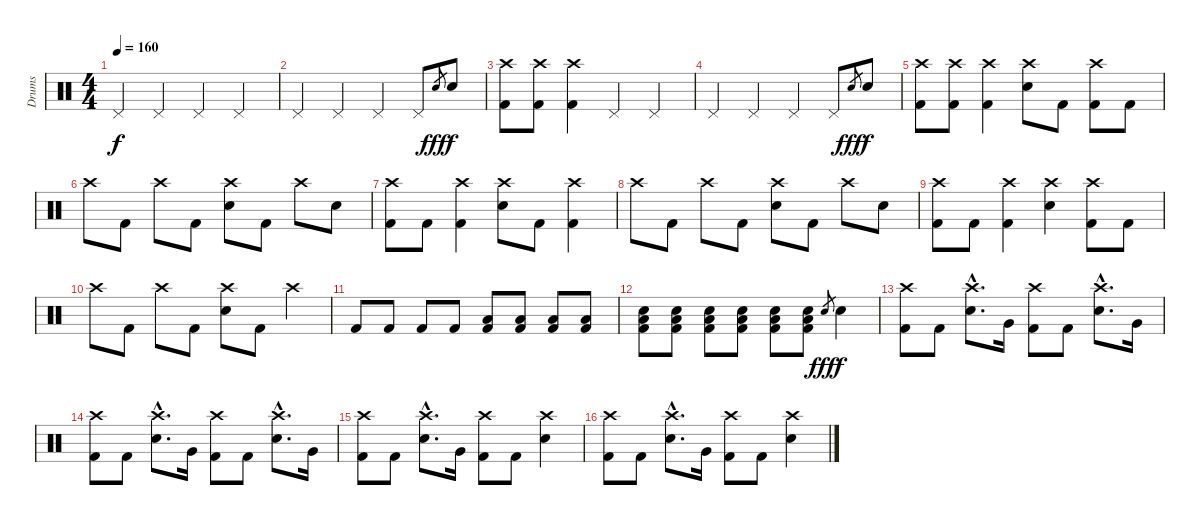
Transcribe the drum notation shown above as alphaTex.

\track ("Drums" "Drums") {instrument percussion}
\staff {score}
\articulation defaults
\ts (4 4)
\tempo 160
\clef neutral
\ks c "Pedal Hi-Hat (hit)".4{dy f} "Pedal Hi-Hat (hit)".4 "Pedal Hi-Hat (hit)".4 "Pedal Hi-Hat (hit)".4
|
"Pedal Hi-Hat (hit)".4 "Pedal Hi-Hat (hit)".4 "Pedal Hi-Hat (hit)".4 "Pedal Hi-Hat (hit)".8 "Electric Snare (hit)".8{gr dy fff} "Electric Snare (hit)".8{dy f} |
("Crash high (hit)" "Kick (hit) 2").8 ("Crash high (hit)" "Kick (hit) 2").8 ("Crash high (hit)" "Kick (hit) 2").4 "Pedal Hi-Hat (hit)".4 "Pedal Hi-Hat (hit)".4 |
"Pedal Hi-Hat (hit)".4 "Pedal Hi-Hat (hit)".4 "Pedal Hi-Hat (hit)".4 "Pedal Hi-Hat (hit)".8 "Electric Snare (hit)".8{gr dy fff} "Electric Snare (hit)".8{dy f} |
("Crash high (hit)" "Kick (hit) 2").8 ("Crash high (hit)" "Kick (hit) 2").8 ("Crash high (hit)" "Kick (hit) 2").4 ("Crash high (hit)" "Electric Snare (hit)").8 "Kick (hit) 2".8 ("Crash high (hit)" "Kick (hit) 2").8 "Kick (hit) 2".8 |
"Crash high (hit)".8 "Kick (hit) 2".8 "Crash high (hit)".8 "Kick (hit) 2".8 ("Crash high (hit)" "Electric Snare (hit)").8 "Kick (hit) 2".8 "Crash high (hit)".8 "Electric Snare (hit)".8 |
("Crash high (hit)" "Kick (hit) 2").8 "Kick (hit) 2".8 ("Crash high (hit)" "Kick (hit) 2").4 ("Crash high (hit)" "Electric Snare (hit)").8 "Kick (hit) 2".8 ("Crash high (hit)" "Kick (hit) 2").4 |
"Crash high (hit)".8 "Kick (hit) 2".8 "Crash high (hit)".8 "Kick (hit) 2".8 ("Crash high (hit)" "Electric Snare (hit)").8 "Kick (hit) 2".8 "Crash high (hit)".8 "Electric Snare (hit)".8 |
("Crash high (hit)" "Kick (hit) 2").8 "Kick (hit) 2".8 ("Crash high (hit)" "Kick (hit) 2").4 ("Crash high (hit)" "Electric Snare (hit)").4 ("Crash high (hit)" "Kick (hit) 2").8 "Kick (hit) 2".8 |
"Crash high (hit)".8 "Kick (hit) 2".8 "Crash high (hit)".8 "Kick (hit) 2".8 ("Crash high (hit)" "Electric Snare (hit)").8 "Kick (hit) 2".8 "Crash high (hit)".4 |
"Kick (hit) 2".8 "Kick (hit) 2".8 "Kick (hit) 2".8 "Kick (hit) 2".8 ("Low Tom (hit)" "Kick (hit) 2").8 ("Low Tom (hit)" "Kick (hit) 2").8 ("Low Tom (hit)" "Kick (hit) 2").8 ("Low Tom (hit)" "Kick (hit) 2").8 |
("Electric Snare (hit)" "Low Tom (hit)" "Kick (hit) 2").8 ("Electric Snare (hit)" "Low Tom (hit)" "Kick (hit) 2").8 ("Electric Snare (hit)" "Low Tom (hit)" "Kick (hit) 2").8 ("Electric Snare (hit)" "Low Tom (hit)" "Kick (hit) 2").8 ("Electric Snare (hit)" "Low Tom (hit)" "Kick (hit) 2").8 ("Electric Snare (hit)" "Low Tom (hit)" "Kick (hit) 2").8 "Electric Snare (hit)".8{gr dy fff} "Electric Snare (hit)".4{dy f} |
("Crash high (hit)" "Kick (hit) 2").8 "Kick (hit) 2".8 ("Crash high (hit)"{hac} "Electric Snare (hit)"{hac}).8{d} "Very Low Tom (hit)".16 ("Crash high (hit)" "Kick (hit) 2").8 "Kick (hit) 2".8 ("Crash high (hit)"{hac} "Electric Snare (hit)"{hac}).8{d} "Very Low Tom (hit)".16 |
("Crash high (hit)" "Kick (hit) 2").8 "Kick (hit) 2".8 ("Crash high (hit)"{hac} "Electric Snare (hit)"{hac}).8{d} "Very Low Tom (hit)".16 ("Crash high (hit)" "Kick (hit) 2").8 "Kick (hit) 2".8 ("Crash high (hit)"{hac} "Electric Snare (hit)"{hac}).8{d} "Very Low Tom (hit)".16 |
("Crash high (hit)" "Kick (hit) 2").8 "Kick (hit) 2".8 ("Crash high (hit)"{hac} "Electric Snare (hit)"{hac}).8{d} "Very Low Tom (hit)".16 ("Crash high (hit)" "Kick (hit) 2").8 "Kick (hit) 2".8 ("Crash high (hit)" "Electric Snare (hit)").4 |
("Crash high (hit)" "Kick (hit) 2").8 "Kick (hit) 2".8 ("Crash high (hit)"{hac} "Electric Snare (hit)"{hac}).8{d} "Very Low Tom (hit)".16 ("Crash high (hit)" "Kick (hit) 2").8 "Kick (hit) 2".8 ("Crash high (hit)" "Electric Snare (hit)").4
